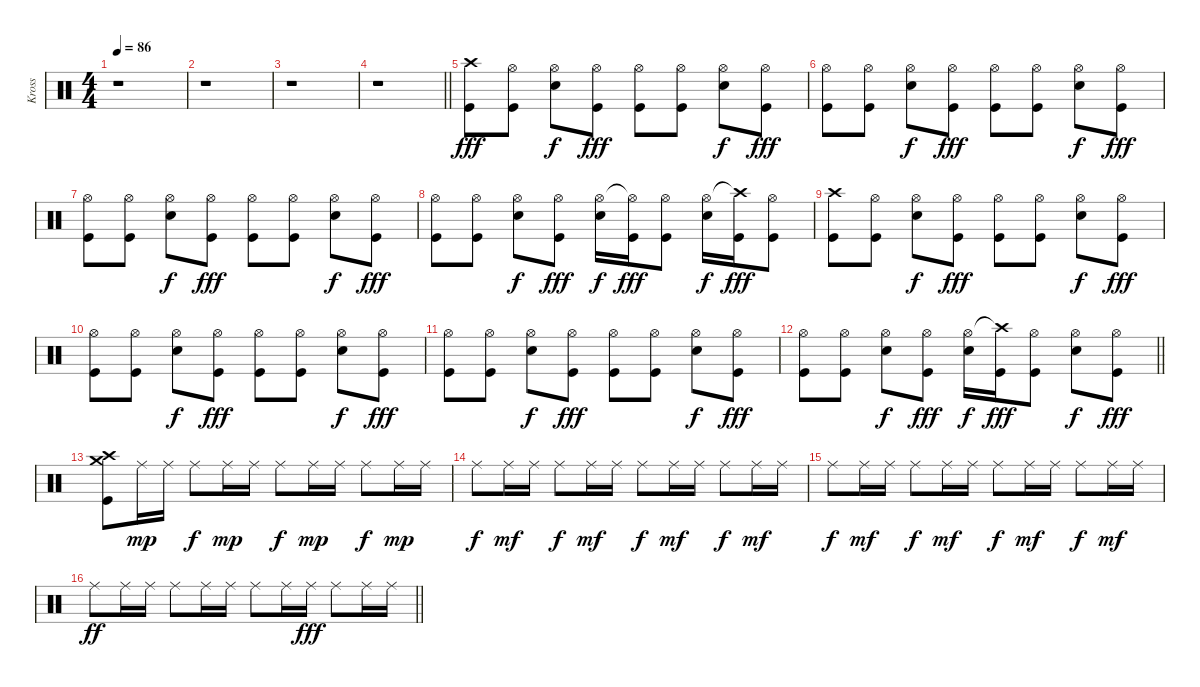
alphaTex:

\track ("Kross" "Kross") {instrument percussion}
\staff {score}
\articulation defaults
\ts (4 4)
\tempo 86
\clef neutral
\ks c
r.1{dy fff} |
r.1 |
r.1 |
\barLineRight lightlight
r.1 |
("Crash high (hit)" "Kick (hit)").8 ("Hi-Hat (open)" "Kick (hit)").8 ("Hi-Hat (open)" "Electric Snare (hit)").8{dy f} ("Hi-Hat (open)" "Kick (hit)").8{dy fff} ("Hi-Hat (open)" "Kick (hit)").8 ("Hi-Hat (open)" "Kick (hit)").8 ("Hi-Hat (open)" "Electric Snare (hit)").8{dy f} ("Hi-Hat (open)" "Kick (hit)").8{dy fff} |
("Hi-Hat (open)" "Kick (hit)").8 ("Hi-Hat (open)" "Kick (hit)").8 ("Hi-Hat (open)" "Electric Snare (hit)").8{dy f} ("Hi-Hat (open)" "Kick (hit)").8{dy fff} ("Hi-Hat (open)" "Kick (hit)").8 ("Hi-Hat (open)" "Kick (hit)").8 ("Hi-Hat (open)" "Electric Snare (hit)").8{dy f} ("Hi-Hat (open)" "Kick (hit)").8{dy fff} |
("Hi-Hat (open)" "Kick (hit)").8 ("Hi-Hat (open)" "Kick (hit)").8 ("Hi-Hat (open)" "Electric Snare (hit)").8{dy f} ("Hi-Hat (open)" "Kick (hit)").8{dy fff} ("Hi-Hat (open)" "Kick (hit)").8 ("Hi-Hat (open)" "Kick (hit)").8 ("Hi-Hat (open)" "Electric Snare (hit)").8{dy f} ("Hi-Hat (open)" "Kick (hit)").8{dy fff} |
("Hi-Hat (open)" "Kick (hit)").8 ("Hi-Hat (open)" "Kick (hit)").8 ("Hi-Hat (open)" "Electric Snare (hit)").8{dy f} ("Hi-Hat (open)" "Kick (hit)").8{dy fff} ("Hi-Hat (open)" "Electric Snare (hit)").16{dy f} ("Hi-Hat (open)"{t} "Kick (hit)").16{dy fff} ("Hi-Hat (open)" "Kick (hit)").8 ("Hi-Hat (open)" "Electric Snare (hit)").16{dy f} ("Crash high (hit)"{t} "Kick (hit)").16{dy fff} ("Hi-Hat (open)" "Kick (hit)").8 |
("Crash high (hit)" "Kick (hit)").8 ("Hi-Hat (open)" "Kick (hit)").8 ("Hi-Hat (open)" "Electric Snare (hit)").8{dy f} ("Hi-Hat (open)" "Kick (hit)").8{dy fff} ("Hi-Hat (open)" "Kick (hit)").8 ("Hi-Hat (open)" "Kick (hit)").8 ("Hi-Hat (open)" "Electric Snare (hit)").8{dy f} ("Hi-Hat (open)" "Kick (hit)").8{dy fff} |
("Hi-Hat (open)" "Kick (hit)").8 ("Hi-Hat (open)" "Kick (hit)").8 ("Hi-Hat (open)" "Electric Snare (hit)").8{dy f} ("Hi-Hat (open)" "Kick (hit)").8{dy fff} ("Hi-Hat (open)" "Kick (hit)").8 ("Hi-Hat (open)" "Kick (hit)").8 ("Hi-Hat (open)" "Electric Snare (hit)").8{dy f} ("Hi-Hat (open)" "Kick (hit)").8{dy fff} |
("Hi-Hat (open)" "Kick (hit)").8 ("Hi-Hat (open)" "Kick (hit)").8 ("Hi-Hat (open)" "Electric Snare (hit)").8{dy f} ("Hi-Hat (open)" "Kick (hit)").8{dy fff} ("Hi-Hat (open)" "Kick (hit)").8 ("Hi-Hat (open)" "Kick (hit)").8 ("Hi-Hat (open)" "Electric Snare (hit)").8{dy f} ("Hi-Hat (open)" "Kick (hit)").8{dy fff} |
\barLineRight lightlight
("Hi-Hat (open)" "Kick (hit)").8 ("Hi-Hat (open)" "Kick (hit)").8 ("Hi-Hat (open)" "Electric Snare (hit)").8{dy f} ("Hi-Hat (open)" "Kick (hit)").8{dy fff} ("Hi-Hat (open)" "Electric Snare (hit)").16{dy f} ("Crash high (hit)"{t} "Kick (hit)").16{dy fff} ("Hi-Hat (open)" "Kick (hit)").8 ("Hi-Hat (open)" "Electric Snare (hit)").8{dy f} ("Hi-Hat (open)" "Kick (hit)").8{dy fff} |
("Crash high (hit)" "Crash medium (hit)" "Kick (hit)").8 "Ride (middle)".16{dy mp} "Ride (middle)".16 "Ride (middle)".8{dy f} "Ride (middle)".16{dy mp} "Ride (middle)".16 "Ride (middle)".8{dy f} "Ride (middle)".16{dy mp} "Ride (middle)".16 "Ride (middle)".8{dy f} "Ride (middle)".16{dy mp} "Ride (middle)".16 |
"Ride (middle)".8{dy f} "Ride (middle)".16{dy mf} "Ride (middle)".16 "Ride (middle)".8{dy f} "Ride (middle)".16{dy mf} "Ride (middle)".16 "Ride (middle)".8{dy f} "Ride (middle)".16{dy mf} "Ride (middle)".16 "Ride (middle)".8{dy f} "Ride (middle)".16{dy mf} "Ride (middle)".16 |
"Ride (middle)".8{dy f} "Ride (middle)".16{dy mf} "Ride (middle)".16 "Ride (middle)".8{dy f} "Ride (middle)".16{dy mf} "Ride (middle)".16 "Ride (middle)".8{dy f} "Ride (middle)".16{dy mf} "Ride (middle)".16 "Ride (middle)".8{dy f} "Ride (middle)".16{dy mf} "Ride (middle)".16 |
\barLineRight lightlight "Ride (middle)".8{dy ff} "Ride (middle)".16 "Ride (middle)".16 "Ride (middle)".8 "Ride (middle)".16 "Ride (middle)".16 "Ride (middle)".8 "Ride (middle)".16 "Ride (middle)".16{dy fff} "Ride (middle)".8 "Ride (middle)".16 "Ride (middle)".16
